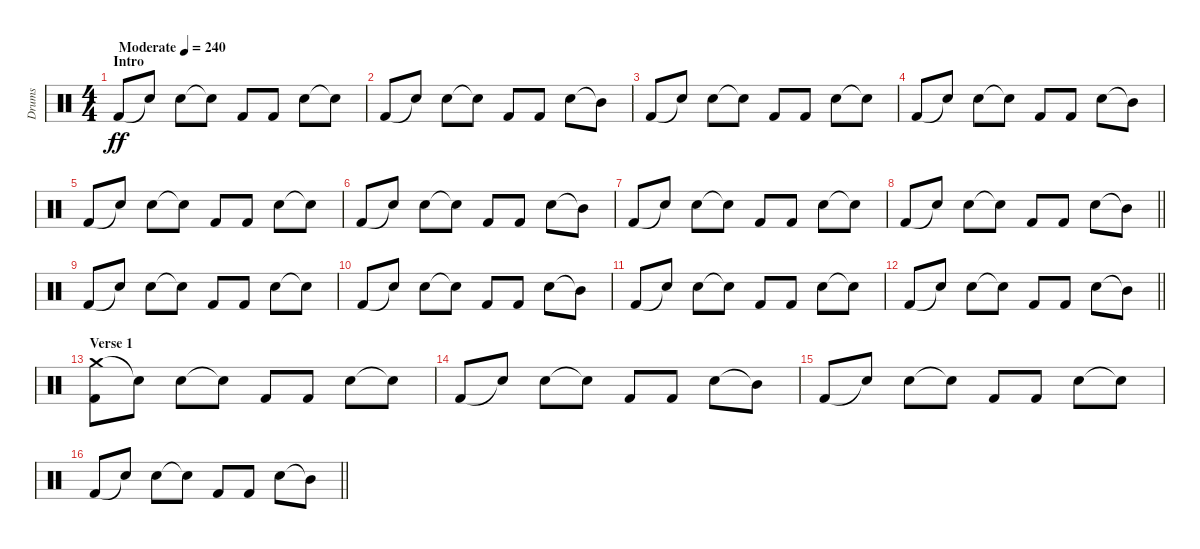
\track ("Drums" "Drums") {instrument percussion}
\staff {score}
\articulation defaults
\ts (4 4)
\section ("" "Intro")
\tempo (240 "Moderate")
\clef neutral
\ks c "Kick (hit) 2".8{dy ff} "Snare (hit)"{t}.8 "Electric Snare (hit)".8 "Snare (hit)"{t}.8 "Kick (hit) 2".8 "Kick (hit) 2".8 "Electric Snare (hit)".8 "Snare (hit)"{t}.8
|
"Kick (hit) 2".8 "Snare (hit)"{t}.8 "Electric Snare (hit)".8 "Snare (hit)"{t}.8 "Kick (hit) 2".8 "Kick (hit) 2".8 "Electric Snare (hit)".8 "Mid Tom (hit)"{t}.8 |
"Kick (hit) 2".8 "Snare (hit)"{t}.8 "Electric Snare (hit)".8 "Snare (hit)"{t}.8 "Kick (hit) 2".8 "Kick (hit) 2".8 "Electric Snare (hit)".8 "Snare (hit)"{t}.8 |
"Kick (hit) 2".8 "Snare (hit)"{t}.8 "Electric Snare (hit)".8 "Snare (hit)"{t}.8 "Kick (hit) 2".8 "Kick (hit) 2".8 "Electric Snare (hit)".8 "Mid Tom (hit)"{t}.8 |
"Kick (hit) 2".8 "Snare (hit)"{t}.8 "Electric Snare (hit)".8 "Snare (hit)"{t}.8 "Kick (hit) 2".8 "Kick (hit) 2".8 "Electric Snare (hit)".8 "Snare (hit)"{t}.8 |
"Kick (hit) 2".8 "Snare (hit)"{t}.8 "Electric Snare (hit)".8 "Snare (hit)"{t}.8 "Kick (hit) 2".8 "Kick (hit) 2".8 "Electric Snare (hit)".8 "Mid Tom (hit)"{t}.8 |
"Kick (hit) 2".8 "Snare (hit)"{t}.8 "Electric Snare (hit)".8 "Snare (hit)"{t}.8 "Kick (hit) 2".8 "Kick (hit) 2".8 "Electric Snare (hit)".8 "Snare (hit)"{t}.8 |
\barLineRight lightlight "Kick (hit) 2".8 "Snare (hit)"{t}.8 "Electric Snare (hit)".8 "Snare (hit)"{t}.8 "Kick (hit) 2".8 "Kick (hit) 2".8 "Electric Snare (hit)".8 "Mid Tom (hit)"{t}.8
|
"Kick (hit) 2".8 "Snare (hit)"{t}.8 "Electric Snare (hit)".8 "Snare (hit)"{t}.8 "Kick (hit) 2".8 "Kick (hit) 2".8 "Electric Snare (hit)".8 "Snare (hit)"{t}.8 |
"Kick (hit) 2".8 "Snare (hit)"{t}.8 "Electric Snare (hit)".8 "Snare (hit)"{t}.8 "Kick (hit) 2".8 "Kick (hit) 2".8 "Electric Snare (hit)".8 "Mid Tom (hit)"{t}.8 |
"Kick (hit) 2".8 "Snare (hit)"{t}.8 "Electric Snare (hit)".8 "Snare (hit)"{t}.8 "Kick (hit) 2".8 "Kick (hit) 2".8 "Electric Snare (hit)".8 "Snare (hit)"{t}.8 |
\barLineRight lightlight "Kick (hit) 2".8 "Snare (hit)"{t}.8 "Electric Snare (hit)".8 "Snare (hit)"{t}.8 "Kick (hit) 2".8 "Kick (hit) 2".8 "Electric Snare (hit)".8 "Mid Tom (hit)"{t}.8
|
\section ("" "Verse 1")
("Crash medium (hit)" "Kick (hit) 2").8 "Snare (hit)"{t}.8 "Electric Snare (hit)".8 "Snare (hit)"{t}.8 "Kick (hit) 2".8 "Kick (hit) 2".8 "Electric Snare (hit)".8 "Snare (hit)"{t}.8 |
"Kick (hit) 2".8 "Snare (hit)"{t}.8 "Electric Snare (hit)".8 "Snare (hit)"{t}.8 "Kick (hit) 2".8 "Kick (hit) 2".8 "Electric Snare (hit)".8 "Mid Tom (hit)"{t}.8 |
"Kick (hit) 2".8 "Snare (hit)"{t}.8 "Electric Snare (hit)".8 "Snare (hit)"{t}.8 "Kick (hit) 2".8 "Kick (hit) 2".8 "Electric Snare (hit)".8 "Snare (hit)"{t}.8 |
\barLineRight lightlight "Kick (hit) 2".8 "Snare (hit)"{t}.8 "Electric Snare (hit)".8 "Snare (hit)"{t}.8 "Kick (hit) 2".8 "Kick (hit) 2".8 "Electric Snare (hit)".8 "Mid Tom (hit)"{t}.8
